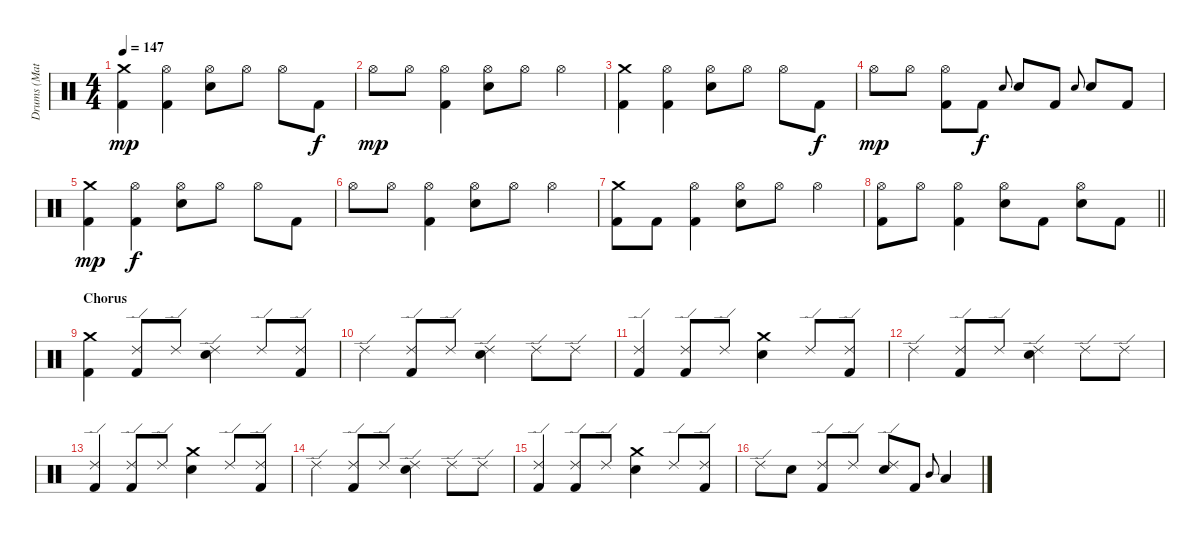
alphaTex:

\track ("Drums (Matt Laug)" "Drums (Mat") {instrument percussion}
\staff {score}
\articulation defaults
\ts (4 4)
\tempo 147
\clef neutral
\ks c
("Crash medium (hit)" "Kick (hit) 2").4{dy mp} ("Hi-Hat (open)" "Kick (hit) 2").4 ("Hi-Hat (open)" "Electric Snare (hit)").8 "Hi-Hat (open)".8 "Hi-Hat (open)".8 "Kick (hit) 2".8{dy f} |
"Hi-Hat (open)".8{dy mp} "Hi-Hat (open)".8 ("Hi-Hat (open)" "Kick (hit) 2").4 ("Hi-Hat (open)" "Electric Snare (hit)").8 "Hi-Hat (open)".8 "Hi-Hat (open)".4 |
("Crash medium (hit)" "Kick (hit) 2").4 ("Hi-Hat (open)" "Kick (hit) 2").4 ("Hi-Hat (open)" "Electric Snare (hit)").8 "Hi-Hat (open)".8 "Hi-Hat (open)".8 "Kick (hit) 2".8{dy f} |
"Hi-Hat (open)".8{dy mp} "Hi-Hat (open)".8 ("Hi-Hat (open)" "Kick (hit) 2").8 "Kick (hit) 2".8{dy f} "Electric Snare (hit)".8{gr onbeat} "Electric Snare (hit)".8 "Kick (hit) 2".8 "Electric Snare (hit)".8{gr onbeat} "Electric Snare (hit)".8 "Kick (hit) 2".8 |
("Crash medium (hit)" "Kick (hit) 2").4{dy mp} ("Hi-Hat (open)" "Kick (hit) 2").4{dy f} ("Hi-Hat (open)" "Electric Snare (hit)").8 "Hi-Hat (open)".8 "Hi-Hat (open)".8 "Kick (hit) 2".8 |
"Hi-Hat (open)".8 "Hi-Hat (open)".8 ("Hi-Hat (open)" "Kick (hit) 2").4 ("Hi-Hat (open)" "Electric Snare (hit)").8 "Hi-Hat (open)".8 "Hi-Hat (open)".4 |
("Crash medium (hit)" "Kick (hit) 2").8 "Kick (hit) 2".8 ("Hi-Hat (open)" "Kick (hit) 2").4 ("Hi-Hat (open)" "Electric Snare (hit)").8 "Hi-Hat (open)".8 "Hi-Hat (open)".4 |
\barLineRight lightlight
("Hi-Hat (open)" "Kick (hit) 2").8 "Hi-Hat (open)".8 ("Hi-Hat (open)" "Kick (hit) 2").4 ("Hi-Hat (open)" "Electric Snare (hit)").8 "Kick (hit) 2".8 ("Hi-Hat (open)" "Electric Snare (hit)").8 "Kick (hit) 2".8 |
\section ("" "Chorus")
("Crash medium (hit)" "Kick (hit) 2").4 ("Ride (edge) 2" "Kick (hit) 2").8 "Ride (edge) 2".8 ("Ride (edge) 2" "Electric Snare (hit)").4 "Ride (edge) 2".8 ("Ride (edge) 2" "Kick (hit) 2").8 |
"Ride (edge) 2".4 ("Ride (edge) 2" "Kick (hit) 2").8 "Ride (edge) 2".8 ("Ride (edge) 2" "Electric Snare (hit)").4 "Ride (edge) 2".8 "Ride (edge) 2".8 |
("Ride (edge) 2" "Kick (hit) 2").4 ("Ride (edge) 2" "Kick (hit) 2").8 "Ride (edge) 2".8 ("Crash medium (hit)" "Electric Snare (hit)").4 "Ride (edge) 2".8 ("Ride (edge) 2" "Kick (hit) 2").8 |
"Ride (edge) 2".4 ("Ride (edge) 2" "Kick (hit) 2").8 "Ride (edge) 2".8 ("Ride (edge) 2" "Electric Snare (hit)").4 "Ride (edge) 2".8 "Ride (edge) 2".8 |
("Ride (edge) 2" "Kick (hit) 2").4 ("Ride (edge) 2" "Kick (hit) 2").8 "Ride (edge) 2".8 ("Crash medium (hit)" "Electric Snare (hit)").4 "Ride (edge) 2".8 ("Ride (edge) 2" "Kick (hit) 2").8 |
"Ride (edge) 2".4 ("Ride (edge) 2" "Kick (hit) 2").8 "Ride (edge) 2".8 ("Ride (edge) 2" "Electric Snare (hit)").4 "Ride (edge) 2".8 "Ride (edge) 2".8 |
("Ride (edge) 2" "Kick (hit) 2").4 ("Ride (edge) 2" "Kick (hit) 2").8 "Ride (edge) 2".8 ("Crash medium (hit)" "Electric Snare (hit)").4 "Ride (edge) 2".8 ("Ride (edge) 2" "Kick (hit) 2").8 |
"Ride (edge) 2".8 "Electric Snare (hit)".8 ("Ride (edge) 2" "Kick (hit) 2").8 "Ride (edge) 2".8 ("Ride (edge) 2" "Electric Snare (hit)").8 "Kick (hit) 2".8 "Mid Tom (hit)".8{gr onbeat} "Low Tom (hit)".4
